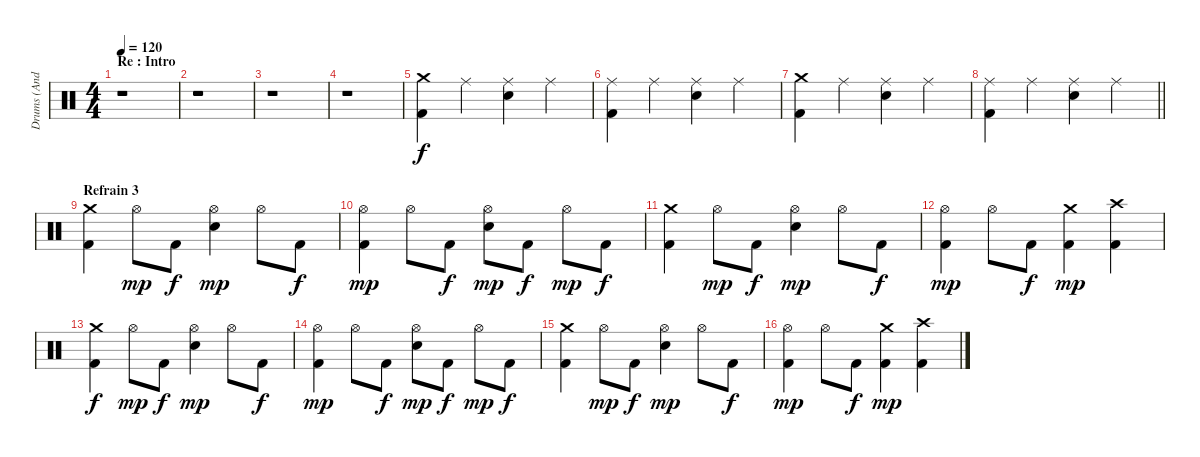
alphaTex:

\track ("Drums (Andy C)" "Drums (And") {instrument percussion}
\staff
\articulation defaults
\ts (4 4)
\section ("" "Re : Intro")
\tempo 120
\clef neutral
\ks c
r.1{dy f} |
r.1 |
r.1 |
r.1 |
("Crash medium (hit)" "Kick (hit) 2").4 "Ride (middle)".4 ("Ride (middle)" "Electric Snare (hit)").4 "Ride (middle)".4 |
("Ride (middle)" "Kick (hit) 2").4 "Ride (middle)".4 ("Ride (middle)" "Electric Snare (hit)").4 "Ride (middle)".4 |
("Crash medium (hit)" "Kick (hit) 2").4 "Ride (middle)".4 ("Ride (middle)" "Electric Snare (hit)").4 "Ride (middle)".4 |
\barLineRight lightlight
("Ride (middle)" "Kick (hit) 2").4 "Ride (middle)".4 ("Ride (middle)" "Electric Snare (hit)").4 "Ride (middle)".4 |
\section ("" "Refrain 3")
("Crash medium (hit)" "Kick (hit) 2").4 "Hi-Hat (open)".8{dy mp} "Kick (hit) 2".8{dy f} ("Hi-Hat (open)" "Electric Snare (hit)").4{dy mp} "Hi-Hat (open)".8 "Kick (hit) 2".8{dy f} |
("Hi-Hat (open)" "Kick (hit) 2").4{dy mp} "Hi-Hat (open)".8 "Kick (hit) 2".8{dy f} ("Hi-Hat (open)" "Electric Snare (hit)").8{dy mp} "Kick (hit) 2".8{dy f} "Hi-Hat (open)".8{dy mp} "Kick (hit) 2".8{dy f} |
("Crash medium (hit)" "Kick (hit) 2").4 "Hi-Hat (open)".8{dy mp} "Kick (hit) 2".8{dy f} ("Hi-Hat (open)" "Electric Snare (hit)").4{dy mp} "Hi-Hat (open)".8 "Kick (hit) 2".8{dy f} |
("Hi-Hat (open)" "Kick (hit) 2").4{dy mp} "Hi-Hat (open)".8 "Kick (hit) 2".8{dy f} ("Crash medium (hit)" "Kick (hit) 2").4{dy mp} ("Crash high (hit)" "Kick (hit) 2").4 |
("Crash medium (hit)" "Kick (hit) 2").4{dy f} "Hi-Hat (open)".8{dy mp} "Kick (hit) 2".8{dy f} ("Hi-Hat (open)" "Electric Snare (hit)").4{dy mp} "Hi-Hat (open)".8 "Kick (hit) 2".8{dy f} |
("Hi-Hat (open)" "Kick (hit) 2").4{dy mp} "Hi-Hat (open)".8 "Kick (hit) 2".8{dy f} ("Hi-Hat (open)" "Electric Snare (hit)").8{dy mp} "Kick (hit) 2".8{dy f} "Hi-Hat (open)".8{dy mp} "Kick (hit) 2".8{dy f} |
("Crash medium (hit)" "Kick (hit) 2").4 "Hi-Hat (open)".8{dy mp} "Kick (hit) 2".8{dy f} ("Hi-Hat (open)" "Electric Snare (hit)").4{dy mp} "Hi-Hat (open)".8 "Kick (hit) 2".8{dy f} |
("Hi-Hat (open)" "Kick (hit) 2").4{dy mp} "Hi-Hat (open)".8 "Kick (hit) 2".8{dy f} ("Crash medium (hit)" "Kick (hit) 2").4{dy mp} ("Crash high (hit)" "Kick (hit) 2").4
